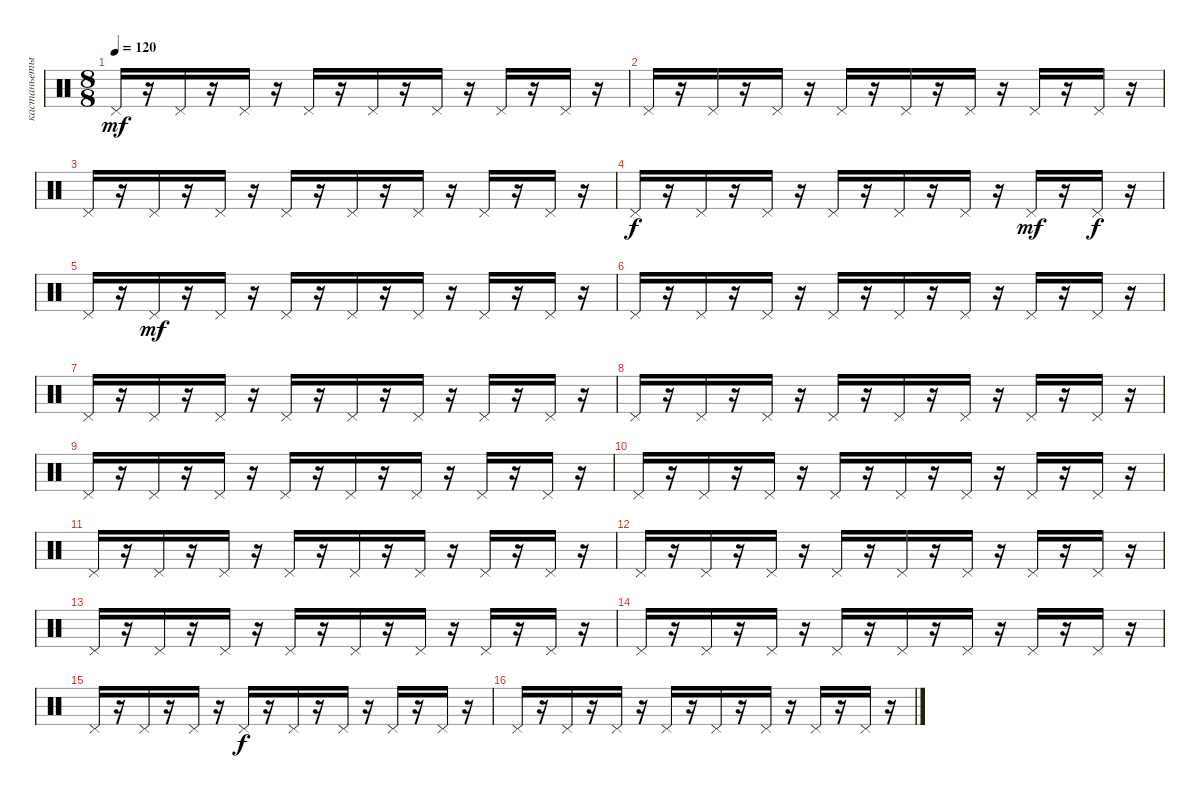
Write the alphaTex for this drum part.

\track ("кастаньеты" "кастаньеты") {instrument percussion}
\staff {score}
\articulation defaults
\ts (8 8)
\tempo 120
\clef neutral
\ks c "Pedal Hi-Hat (hit)".16{dy mf}
r.16 "Pedal Hi-Hat (hit)".16 r.16 "Pedal Hi-Hat (hit)".16 r.16 "Pedal Hi-Hat (hit)".16 r.16 "Pedal Hi-Hat (hit)".16 r.16 "Pedal Hi-Hat (hit)".16 r.16 "Pedal Hi-Hat (hit)".16 r.16 "Pedal Hi-Hat (hit)".16 r.16 |
"Pedal Hi-Hat (hit)".16 r.16 "Pedal Hi-Hat (hit)".16 r.16 "Pedal Hi-Hat (hit)".16 r.16 "Pedal Hi-Hat (hit)".16 r.16 "Pedal Hi-Hat (hit)".16 r.16 "Pedal Hi-Hat (hit)".16 r.16 "Pedal Hi-Hat (hit)".16 r.16 "Pedal Hi-Hat (hit)".16 r.16 |
"Pedal Hi-Hat (hit)".16 r.16 "Pedal Hi-Hat (hit)".16 r.16 "Pedal Hi-Hat (hit)".16 r.16 "Pedal Hi-Hat (hit)".16 r.16 "Pedal Hi-Hat (hit)".16 r.16 "Pedal Hi-Hat (hit)".16 r.16 "Pedal Hi-Hat (hit)".16 r.16 "Pedal Hi-Hat (hit)".16 r.16 |
"Pedal Hi-Hat (hit)".16{dy f} r.16 "Pedal Hi-Hat (hit)".16 r.16 "Pedal Hi-Hat (hit)".16 r.16 "Pedal Hi-Hat (hit)".16 r.16 "Pedal Hi-Hat (hit)".16 r.16 "Pedal Hi-Hat (hit)".16 r.16 "Pedal Hi-Hat (hit)".16{dy mf} r.16 "Pedal Hi-Hat (hit)".16{dy f} r.16 |
"Pedal Hi-Hat (hit)".16 r.16 "Pedal Hi-Hat (hit)".16{dy mf} r.16 "Pedal Hi-Hat (hit)".16 r.16 "Pedal Hi-Hat (hit)".16 r.16 "Pedal Hi-Hat (hit)".16 r.16 "Pedal Hi-Hat (hit)".16 r.16 "Pedal Hi-Hat (hit)".16 r.16 "Pedal Hi-Hat (hit)".16 r.16 |
"Pedal Hi-Hat (hit)".16 r.16 "Pedal Hi-Hat (hit)".16 r.16 "Pedal Hi-Hat (hit)".16 r.16 "Pedal Hi-Hat (hit)".16 r.16 "Pedal Hi-Hat (hit)".16 r.16 "Pedal Hi-Hat (hit)".16 r.16 "Pedal Hi-Hat (hit)".16 r.16 "Pedal Hi-Hat (hit)".16 r.16 |
"Pedal Hi-Hat (hit)".16 r.16 "Pedal Hi-Hat (hit)".16 r.16 "Pedal Hi-Hat (hit)".16 r.16 "Pedal Hi-Hat (hit)".16 r.16 "Pedal Hi-Hat (hit)".16 r.16 "Pedal Hi-Hat (hit)".16 r.16 "Pedal Hi-Hat (hit)".16 r.16 "Pedal Hi-Hat (hit)".16 r.16 |
"Pedal Hi-Hat (hit)".16 r.16 "Pedal Hi-Hat (hit)".16 r.16 "Pedal Hi-Hat (hit)".16 r.16 "Pedal Hi-Hat (hit)".16 r.16 "Pedal Hi-Hat (hit)".16 r.16 "Pedal Hi-Hat (hit)".16 r.16 "Pedal Hi-Hat (hit)".16 r.16 "Pedal Hi-Hat (hit)".16 r.16 |
"Pedal Hi-Hat (hit)".16 r.16 "Pedal Hi-Hat (hit)".16 r.16 "Pedal Hi-Hat (hit)".16 r.16 "Pedal Hi-Hat (hit)".16 r.16 "Pedal Hi-Hat (hit)".16 r.16 "Pedal Hi-Hat (hit)".16 r.16 "Pedal Hi-Hat (hit)".16 r.16 "Pedal Hi-Hat (hit)".16 r.16 |
"Pedal Hi-Hat (hit)".16 r.16 "Pedal Hi-Hat (hit)".16 r.16 "Pedal Hi-Hat (hit)".16 r.16 "Pedal Hi-Hat (hit)".16 r.16 "Pedal Hi-Hat (hit)".16 r.16 "Pedal Hi-Hat (hit)".16 r.16 "Pedal Hi-Hat (hit)".16 r.16 "Pedal Hi-Hat (hit)".16 r.16 |
"Pedal Hi-Hat (hit)".16 r.16 "Pedal Hi-Hat (hit)".16 r.16 "Pedal Hi-Hat (hit)".16 r.16 "Pedal Hi-Hat (hit)".16 r.16 "Pedal Hi-Hat (hit)".16 r.16 "Pedal Hi-Hat (hit)".16 r.16 "Pedal Hi-Hat (hit)".16 r.16 "Pedal Hi-Hat (hit)".16 r.16 |
"Pedal Hi-Hat (hit)".16 r.16 "Pedal Hi-Hat (hit)".16 r.16 "Pedal Hi-Hat (hit)".16 r.16 "Pedal Hi-Hat (hit)".16 r.16 "Pedal Hi-Hat (hit)".16 r.16 "Pedal Hi-Hat (hit)".16 r.16 "Pedal Hi-Hat (hit)".16 r.16 "Pedal Hi-Hat (hit)".16 r.16 |
"Pedal Hi-Hat (hit)".16 r.16 "Pedal Hi-Hat (hit)".16 r.16 "Pedal Hi-Hat (hit)".16 r.16 "Pedal Hi-Hat (hit)".16 r.16 "Pedal Hi-Hat (hit)".16 r.16 "Pedal Hi-Hat (hit)".16 r.16 "Pedal Hi-Hat (hit)".16 r.16 "Pedal Hi-Hat (hit)".16 r.16 |
"Pedal Hi-Hat (hit)".16 r.16 "Pedal Hi-Hat (hit)".16 r.16 "Pedal Hi-Hat (hit)".16 r.16 "Pedal Hi-Hat (hit)".16 r.16 "Pedal Hi-Hat (hit)".16 r.16 "Pedal Hi-Hat (hit)".16 r.16 "Pedal Hi-Hat (hit)".16 r.16 "Pedal Hi-Hat (hit)".16 r.16 |
"Pedal Hi-Hat (hit)".16 r.16 "Pedal Hi-Hat (hit)".16 r.16 "Pedal Hi-Hat (hit)".16 r.16 "Pedal Hi-Hat (hit)".16{dy f} r.16 "Pedal Hi-Hat (hit)".16 r.16 "Pedal Hi-Hat (hit)".16 r.16 "Pedal Hi-Hat (hit)".16 r.16 "Pedal Hi-Hat (hit)".16 r.16 |
"Pedal Hi-Hat (hit)".16 r.16 "Pedal Hi-Hat (hit)".16 r.16 "Pedal Hi-Hat (hit)".16 r.16 "Pedal Hi-Hat (hit)".16 r.16 "Pedal Hi-Hat (hit)".16 r.16 "Pedal Hi-Hat (hit)".16 r.16 "Pedal Hi-Hat (hit)".16 r.16 "Pedal Hi-Hat (hit)".16 r.16
